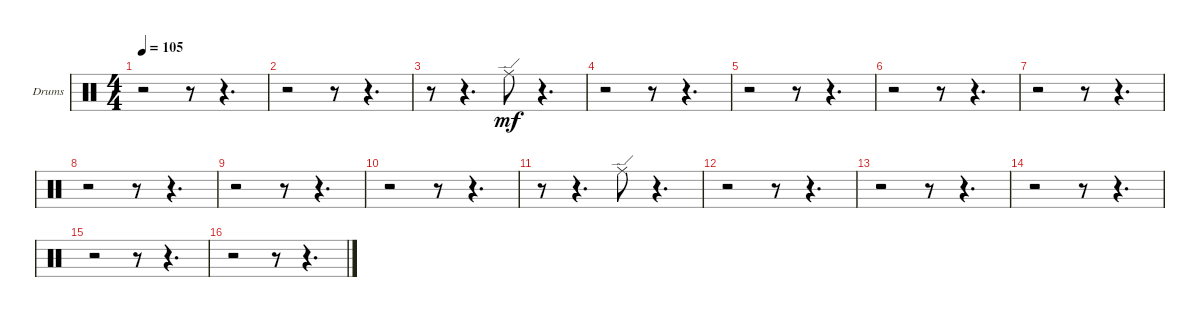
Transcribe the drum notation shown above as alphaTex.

\defaultSystemsLayout 4
\bracketExtendMode groupsimilarinstruments
\firstSystemTrackNameOrientation horizontal
\otherSystemsTrackNameOrientation horizontal
\track ("Drumkit" "Drums") {instrument percussion}
\staff {score}
\articulation defaults
\ts (4 4)
\tempo 105
\clef neutral
\scale
0.333333
\ks c
r.2{dy mf} r.8 r.4{d} |
\scale
0.333333 r.2 r.8 r.4{d} |
\scale
0.333333 r.8 r.4{d} "Ride (edge)".8 r.4{d} |
\scale
0.333333 r.2 r.8 r.4{d} |
\scale
0.333333 r.2 r.8 r.4{d} |
\scale
0.333333 r.2 r.8 r.4{d} |
\scale
0.333333 r.2 r.8 r.4{d} |
\scale
0.333333 r.2 r.8 r.4{d} |
\scale
0.333333 r.2 r.8 r.4{d} |
\scale
0.333333 r.2 r.8 r.4{d} |
\scale
0.333333 r.8 r.4{d} "Ride (edge)".8 r.4{d} |
\scale
0.333333 r.2 r.8 r.4{d} |
\scale
0.333333 r.2 r.8 r.4{d} |
\scale
0.333333 r.2 r.8 r.4{d} |
\scale
0.333333 r.2 r.8 r.4{d} |
\scale
0.333333 r.2 r.8 r.4{d}
